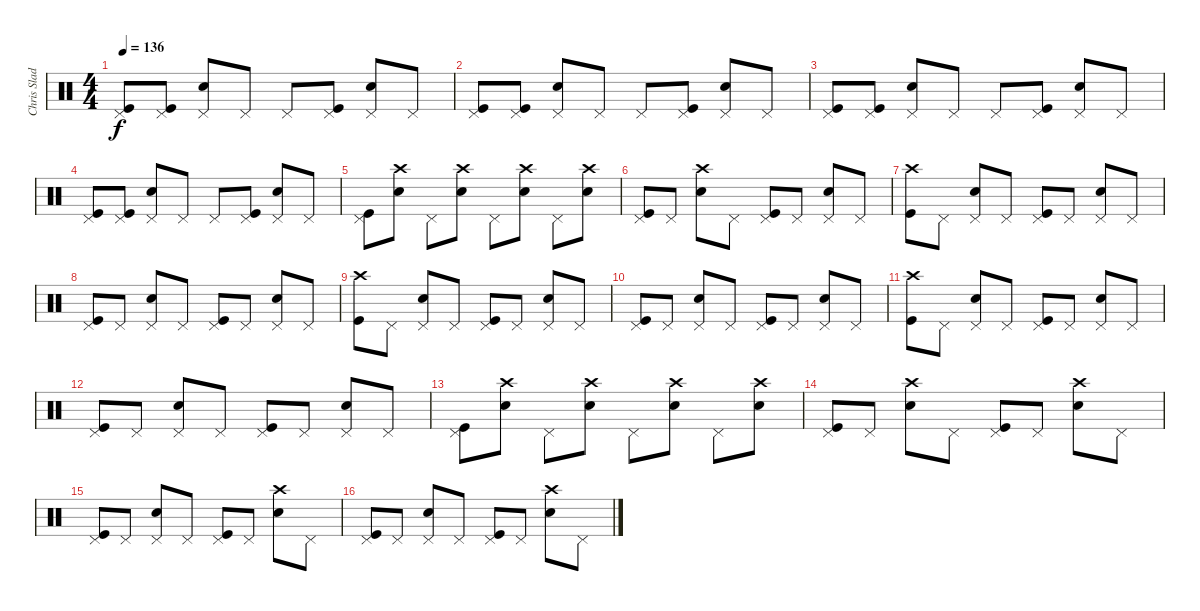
\track ("Chris Slade" "Chris Slad") {instrument percussion}
\staff {score}
\articulation defaults
\ts (4 4)
\tempo 136
\clef neutral
\ks c
("Pedal Hi-Hat (hit)" "Kick (hit)").8{dy f} ("Pedal Hi-Hat (hit)" "Kick (hit)").8 ("Pedal Hi-Hat (hit)" "Snare (hit) 2").8 "Pedal Hi-Hat (hit)".8 "Pedal Hi-Hat (hit)".8 ("Pedal Hi-Hat (hit)" "Kick (hit)").8 ("Pedal Hi-Hat (hit)" "Snare (hit) 2").8 "Pedal Hi-Hat (hit)".8 |
("Pedal Hi-Hat (hit)" "Kick (hit)").8 ("Pedal Hi-Hat (hit)" "Kick (hit)").8 ("Pedal Hi-Hat (hit)" "Snare (hit) 2").8 "Pedal Hi-Hat (hit)".8 "Pedal Hi-Hat (hit)".8 ("Pedal Hi-Hat (hit)" "Kick (hit)").8 ("Pedal Hi-Hat (hit)" "Snare (hit) 2").8 "Pedal Hi-Hat (hit)".8 |
("Pedal Hi-Hat (hit)" "Kick (hit)").8 ("Pedal Hi-Hat (hit)" "Kick (hit)").8 ("Pedal Hi-Hat (hit)" "Snare (hit) 2").8 "Pedal Hi-Hat (hit)".8 "Pedal Hi-Hat (hit)".8 ("Pedal Hi-Hat (hit)" "Kick (hit)").8 ("Pedal Hi-Hat (hit)" "Snare (hit) 2").8 "Pedal Hi-Hat (hit)".8 |
("Pedal Hi-Hat (hit)" "Kick (hit)").8 ("Pedal Hi-Hat (hit)" "Kick (hit)").8 ("Pedal Hi-Hat (hit)" "Snare (hit) 2").8 "Pedal Hi-Hat (hit)".8 "Pedal Hi-Hat (hit)".8 ("Pedal Hi-Hat (hit)" "Kick (hit)").8 ("Pedal Hi-Hat (hit)" "Snare (hit) 2").8 "Pedal Hi-Hat (hit)".8 |
("Pedal Hi-Hat (hit)" "Kick (hit)").8 ("Crash high (hit)" "Snare (hit) 2").8 "Pedal Hi-Hat (hit)".8 ("Crash high (hit)" "Snare (hit) 2").8 "Pedal Hi-Hat (hit)".8 ("Crash high (hit)" "Snare (hit) 2").8 "Pedal Hi-Hat (hit)".8 ("Crash high (hit)" "Snare (hit) 2").8 |
("Pedal Hi-Hat (hit)" "Kick (hit)").8 "Pedal Hi-Hat (hit)".8 ("Crash high (hit)" "Snare (hit) 2").8 "Pedal Hi-Hat (hit)".8 ("Pedal Hi-Hat (hit)" "Kick (hit)").8 "Pedal Hi-Hat (hit)".8 ("Pedal Hi-Hat (hit)" "Snare (hit) 2").8 "Pedal Hi-Hat (hit)".8 |
("Crash high (hit)" "Kick (hit)").8 "Pedal Hi-Hat (hit)".8 ("Pedal Hi-Hat (hit)" "Snare (hit) 2").8 "Pedal Hi-Hat (hit)".8 ("Pedal Hi-Hat (hit)" "Kick (hit)").8 "Pedal Hi-Hat (hit)".8 ("Pedal Hi-Hat (hit)" "Snare (hit) 2").8 "Pedal Hi-Hat (hit)".8 |
("Pedal Hi-Hat (hit)" "Kick (hit)").8 "Pedal Hi-Hat (hit)".8 ("Pedal Hi-Hat (hit)" "Snare (hit) 2").8 "Pedal Hi-Hat (hit)".8 ("Pedal Hi-Hat (hit)" "Kick (hit)").8 "Pedal Hi-Hat (hit)".8 ("Pedal Hi-Hat (hit)" "Snare (hit) 2").8 "Pedal Hi-Hat (hit)".8 |
("Crash high (hit)" "Kick (hit)").8 "Pedal Hi-Hat (hit)".8 ("Pedal Hi-Hat (hit)" "Snare (hit) 2").8 "Pedal Hi-Hat (hit)".8 ("Pedal Hi-Hat (hit)" "Kick (hit)").8 "Pedal Hi-Hat (hit)".8 ("Pedal Hi-Hat (hit)" "Snare (hit) 2").8 "Pedal Hi-Hat (hit)".8 |
("Pedal Hi-Hat (hit)" "Kick (hit)").8 "Pedal Hi-Hat (hit)".8 ("Pedal Hi-Hat (hit)" "Snare (hit) 2").8 "Pedal Hi-Hat (hit)".8 ("Pedal Hi-Hat (hit)" "Kick (hit)").8 "Pedal Hi-Hat (hit)".8 ("Pedal Hi-Hat (hit)" "Snare (hit) 2").8 "Pedal Hi-Hat (hit)".8 |
("Crash high (hit)" "Kick (hit)").8 "Pedal Hi-Hat (hit)".8 ("Pedal Hi-Hat (hit)" "Snare (hit) 2").8 "Pedal Hi-Hat (hit)".8 ("Pedal Hi-Hat (hit)" "Kick (hit)").8 "Pedal Hi-Hat (hit)".8 ("Pedal Hi-Hat (hit)" "Snare (hit) 2").8 "Pedal Hi-Hat (hit)".8 |
("Pedal Hi-Hat (hit)" "Kick (hit)").8 "Pedal Hi-Hat (hit)".8 ("Pedal Hi-Hat (hit)" "Snare (hit) 2").8 "Pedal Hi-Hat (hit)".8 ("Pedal Hi-Hat (hit)" "Kick (hit)").8 "Pedal Hi-Hat (hit)".8 ("Pedal Hi-Hat (hit)" "Snare (hit) 2").8 "Pedal Hi-Hat (hit)".8 |
("Pedal Hi-Hat (hit)" "Kick (hit)").8 ("Crash high (hit)" "Snare (hit) 2").8 "Pedal Hi-Hat (hit)".8 ("Crash high (hit)" "Snare (hit) 2").8 "Pedal Hi-Hat (hit)".8 ("Crash high (hit)" "Snare (hit) 2").8 "Pedal Hi-Hat (hit)".8 ("Crash high (hit)" "Snare (hit) 2").8 |
("Pedal Hi-Hat (hit)" "Kick (hit)").8 "Pedal Hi-Hat (hit)".8 ("Crash high (hit)" "Snare (hit) 2").8 "Pedal Hi-Hat (hit)".8 ("Pedal Hi-Hat (hit)" "Kick (hit)").8 "Pedal Hi-Hat (hit)".8 ("Crash high (hit)" "Snare (hit) 2").8 "Pedal Hi-Hat (hit)".8 |
("Pedal Hi-Hat (hit)" "Kick (hit)").8 "Pedal Hi-Hat (hit)".8 ("Pedal Hi-Hat (hit)" "Snare (hit) 2").8 "Pedal Hi-Hat (hit)".8 ("Pedal Hi-Hat (hit)" "Kick (hit)").8 "Pedal Hi-Hat (hit)".8 ("Crash high (hit)" "Snare (hit) 2").8 "Pedal Hi-Hat (hit)".8 |
("Pedal Hi-Hat (hit)" "Kick (hit)").8 "Pedal Hi-Hat (hit)".8 ("Pedal Hi-Hat (hit)" "Snare (hit) 2").8 "Pedal Hi-Hat (hit)".8 ("Pedal Hi-Hat (hit)" "Kick (hit)").8 "Pedal Hi-Hat (hit)".8 ("Crash high (hit)" "Snare (hit) 2").8 "Pedal Hi-Hat (hit)".8
